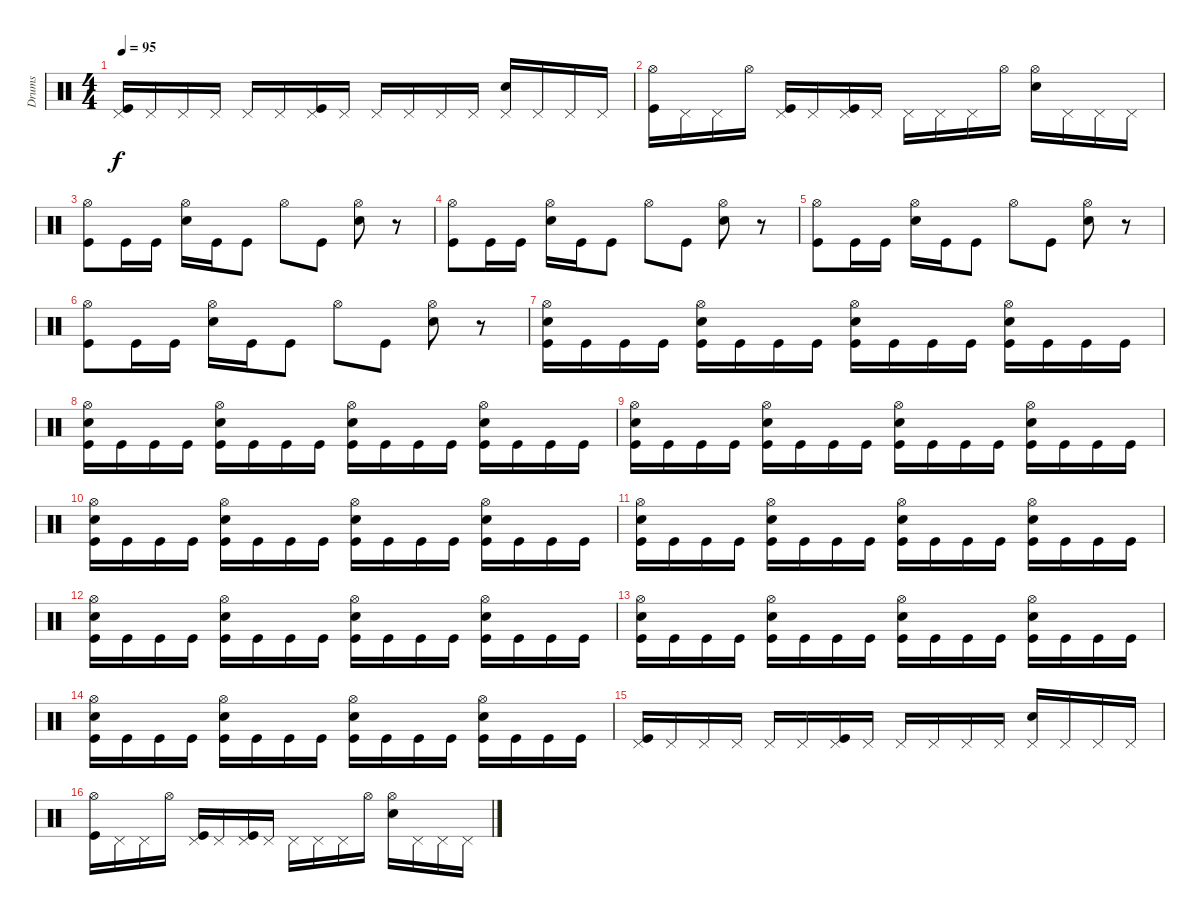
\track ("Drums" "Drums") {instrument percussion}
\staff {score}
\articulation defaults
\ts (4 4)
\tempo 95
\clef neutral
\ks c
("Kick (hit)" "Pedal Hi-Hat (hit)").16{dy f} "Pedal Hi-Hat (hit)".16 "Pedal Hi-Hat (hit)".16 "Pedal Hi-Hat (hit)".16 "Pedal Hi-Hat (hit)".16 "Pedal Hi-Hat (hit)".16 ("Kick (hit)" "Pedal Hi-Hat (hit)").16 "Pedal Hi-Hat (hit)".16 "Pedal Hi-Hat (hit)".16 "Pedal Hi-Hat (hit)".16 "Pedal Hi-Hat (hit)".16 "Pedal Hi-Hat (hit)".16 ("Snare (hit) 2" "Pedal Hi-Hat (hit)").16 "Pedal Hi-Hat (hit)".16 "Pedal Hi-Hat (hit)".16 "Pedal Hi-Hat (hit)".16 |
("Kick (hit)" "Hi-Hat (open)").16 "Pedal Hi-Hat (hit)".16 "Pedal Hi-Hat (hit)".16 "Hi-Hat (open)".16 ("Kick (hit)" "Pedal Hi-Hat (hit)").16 "Pedal Hi-Hat (hit)".16 ("Kick (hit)" "Pedal Hi-Hat (hit)").16 "Pedal Hi-Hat (hit)".16 "Pedal Hi-Hat (hit)".16 "Pedal Hi-Hat (hit)".16 "Pedal Hi-Hat (hit)".16 "Hi-Hat (open)".16 ("Snare (hit) 2" "Hi-Hat (open)").16 "Pedal Hi-Hat (hit)".16 "Pedal Hi-Hat (hit)".16 "Pedal Hi-Hat (hit)".16 |
("Kick (hit)" "Hi-Hat (open)").8 "Kick (hit)".16 "Kick (hit)".16 ("Snare (hit) 2" "Hi-Hat (open)").16 "Kick (hit)".16 "Kick (hit)".8 "Hi-Hat (open)".8 "Kick (hit)".8 ("Snare (hit) 2" "Hi-Hat (open)").8 r.8 |
("Kick (hit)" "Hi-Hat (open)").8 "Kick (hit)".16 "Kick (hit)".16 ("Snare (hit) 2" "Hi-Hat (open)").16 "Kick (hit)".16 "Kick (hit)".8 "Hi-Hat (open)".8 "Kick (hit)".8 ("Snare (hit) 2" "Hi-Hat (open)").8 r.8 |
("Kick (hit)" "Hi-Hat (open)").8 "Kick (hit)".16 "Kick (hit)".16 ("Snare (hit) 2" "Hi-Hat (open)").16 "Kick (hit)".16 "Kick (hit)".8 "Hi-Hat (open)".8 "Kick (hit)".8 ("Snare (hit) 2" "Hi-Hat (open)").8 r.8 |
("Kick (hit)" "Hi-Hat (open)").8 "Kick (hit)".16 "Kick (hit)".16 ("Snare (hit) 2" "Hi-Hat (open)").16 "Kick (hit)".16 "Kick (hit)".8 "Hi-Hat (open)".8 "Kick (hit)".8 ("Snare (hit) 2" "Hi-Hat (open)").8 r.8 |
("Kick (hit)" "Snare (hit) 2" "Hi-Hat (open)").16 "Kick (hit)".16 "Kick (hit)".16 "Kick (hit)".16 ("Kick (hit)" "Snare (hit) 2" "Hi-Hat (open)").16 "Kick (hit)".16 "Kick (hit)".16 "Kick (hit)".16 ("Kick (hit)" "Snare (hit) 2" "Hi-Hat (open)").16 "Kick (hit)".16 "Kick (hit)".16 "Kick (hit)".16 ("Kick (hit)" "Snare (hit) 2" "Hi-Hat (open)").16 "Kick (hit)".16 "Kick (hit)".16 "Kick (hit)".16 |
("Kick (hit)" "Snare (hit) 2" "Hi-Hat (open)").16 "Kick (hit)".16 "Kick (hit)".16 "Kick (hit)".16 ("Kick (hit)" "Snare (hit) 2" "Hi-Hat (open)").16 "Kick (hit)".16 "Kick (hit)".16 "Kick (hit)".16 ("Kick (hit)" "Snare (hit) 2" "Hi-Hat (open)").16 "Kick (hit)".16 "Kick (hit)".16 "Kick (hit)".16 ("Kick (hit)" "Snare (hit) 2" "Hi-Hat (open)").16 "Kick (hit)".16 "Kick (hit)".16 "Kick (hit)".16 |
("Kick (hit)" "Snare (hit) 2" "Hi-Hat (open)").16 "Kick (hit)".16 "Kick (hit)".16 "Kick (hit)".16 ("Kick (hit)" "Snare (hit) 2" "Hi-Hat (open)").16 "Kick (hit)".16 "Kick (hit)".16 "Kick (hit)".16 ("Kick (hit)" "Snare (hit) 2" "Hi-Hat (open)").16 "Kick (hit)".16 "Kick (hit)".16 "Kick (hit)".16 ("Kick (hit)" "Snare (hit) 2" "Hi-Hat (open)").16 "Kick (hit)".16 "Kick (hit)".16 "Kick (hit)".16 |
("Kick (hit)" "Snare (hit) 2" "Hi-Hat (open)").16 "Kick (hit)".16 "Kick (hit)".16 "Kick (hit)".16 ("Kick (hit)" "Snare (hit) 2" "Hi-Hat (open)").16 "Kick (hit)".16 "Kick (hit)".16 "Kick (hit)".16 ("Kick (hit)" "Snare (hit) 2" "Hi-Hat (open)").16 "Kick (hit)".16 "Kick (hit)".16 "Kick (hit)".16 ("Kick (hit)" "Snare (hit) 2" "Hi-Hat (open)").16 "Kick (hit)".16 "Kick (hit)".16 "Kick (hit)".16 |
("Kick (hit)" "Snare (hit) 2" "Hi-Hat (open)").16 "Kick (hit)".16 "Kick (hit)".16 "Kick (hit)".16 ("Kick (hit)" "Snare (hit) 2" "Hi-Hat (open)").16 "Kick (hit)".16 "Kick (hit)".16 "Kick (hit)".16 ("Kick (hit)" "Snare (hit) 2" "Hi-Hat (open)").16 "Kick (hit)".16 "Kick (hit)".16 "Kick (hit)".16 ("Kick (hit)" "Snare (hit) 2" "Hi-Hat (open)").16 "Kick (hit)".16 "Kick (hit)".16 "Kick (hit)".16 |
("Kick (hit)" "Snare (hit) 2" "Hi-Hat (open)").16 "Kick (hit)".16 "Kick (hit)".16 "Kick (hit)".16 ("Kick (hit)" "Snare (hit) 2" "Hi-Hat (open)").16 "Kick (hit)".16 "Kick (hit)".16 "Kick (hit)".16 ("Kick (hit)" "Snare (hit) 2" "Hi-Hat (open)").16 "Kick (hit)".16 "Kick (hit)".16 "Kick (hit)".16 ("Kick (hit)" "Snare (hit) 2" "Hi-Hat (open)").16 "Kick (hit)".16 "Kick (hit)".16 "Kick (hit)".16 |
("Kick (hit)" "Snare (hit) 2" "Hi-Hat (open)").16 "Kick (hit)".16 "Kick (hit)".16 "Kick (hit)".16 ("Kick (hit)" "Snare (hit) 2" "Hi-Hat (open)").16 "Kick (hit)".16 "Kick (hit)".16 "Kick (hit)".16 ("Kick (hit)" "Snare (hit) 2" "Hi-Hat (open)").16 "Kick (hit)".16 "Kick (hit)".16 "Kick (hit)".16 ("Kick (hit)" "Snare (hit) 2" "Hi-Hat (open)").16 "Kick (hit)".16 "Kick (hit)".16 "Kick (hit)".16 |
("Kick (hit)" "Snare (hit) 2" "Hi-Hat (open)").16 "Kick (hit)".16 "Kick (hit)".16 "Kick (hit)".16 ("Kick (hit)" "Snare (hit) 2" "Hi-Hat (open)").16 "Kick (hit)".16 "Kick (hit)".16 "Kick (hit)".16 ("Kick (hit)" "Snare (hit) 2" "Hi-Hat (open)").16 "Kick (hit)".16 "Kick (hit)".16 "Kick (hit)".16 ("Kick (hit)" "Snare (hit) 2" "Hi-Hat (open)").16 "Kick (hit)".16 "Kick (hit)".16 "Kick (hit)".16 |
("Kick (hit)" "Pedal Hi-Hat (hit)").16 "Pedal Hi-Hat (hit)".16 "Pedal Hi-Hat (hit)".16 "Pedal Hi-Hat (hit)".16 "Pedal Hi-Hat (hit)".16 "Pedal Hi-Hat (hit)".16 ("Kick (hit)" "Pedal Hi-Hat (hit)").16 "Pedal Hi-Hat (hit)".16 "Pedal Hi-Hat (hit)".16 "Pedal Hi-Hat (hit)".16 "Pedal Hi-Hat (hit)".16 "Pedal Hi-Hat (hit)".16 ("Snare (hit) 2" "Pedal Hi-Hat (hit)").16 "Pedal Hi-Hat (hit)".16 "Pedal Hi-Hat (hit)".16 "Pedal Hi-Hat (hit)".16 |
("Kick (hit)" "Hi-Hat (open)").16 "Pedal Hi-Hat (hit)".16 "Pedal Hi-Hat (hit)".16 "Hi-Hat (open)".16 ("Kick (hit)" "Pedal Hi-Hat (hit)").16 "Pedal Hi-Hat (hit)".16 ("Kick (hit)" "Pedal Hi-Hat (hit)").16 "Pedal Hi-Hat (hit)".16 "Pedal Hi-Hat (hit)".16 "Pedal Hi-Hat (hit)".16 "Pedal Hi-Hat (hit)".16 "Hi-Hat (open)".16 ("Snare (hit) 2" "Hi-Hat (open)").16 "Pedal Hi-Hat (hit)".16 "Pedal Hi-Hat (hit)".16 "Pedal Hi-Hat (hit)".16
